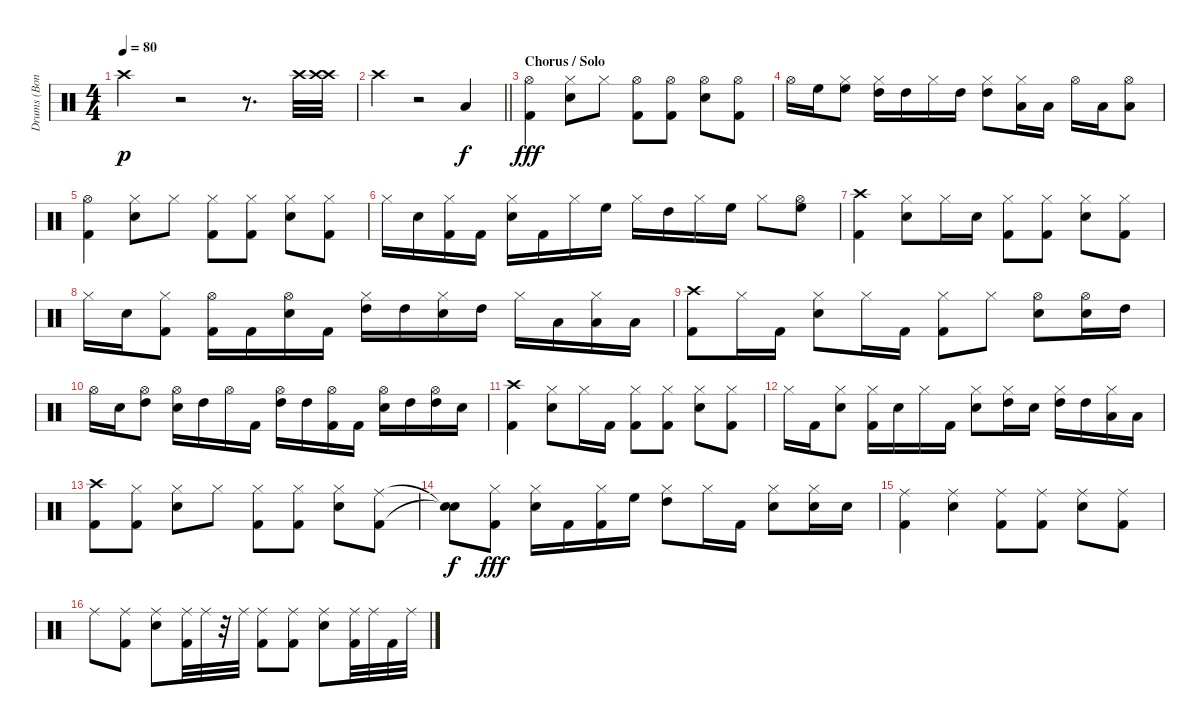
\track ("Drums (Bonham)" "Drums (Bon") {instrument percussion}
\staff {score}
\articulation defaults
\ts (4 4)
\tempo 80
\clef neutral
\ks c "Crash high (hit)".4{dy p}
r.2 r.8{d} "Crash high (hit)".32 ("Crash high (hit)" "Crash high (hit)").32 |
\barLineRight lightlight "Crash high (hit)".4
r.2 "Low Floor Tom (hit)".4{dy f} |
\section ("" "Chorus / Solo")
("Kick (hit) 2" "Hi-Hat (open)").4{dy fff} ("Snare (hit) 2" "Hi-Hat (closed)").8 "Hi-Hat (closed)".8 ("Kick (hit) 2" "Hi-Hat (open)").8 ("Kick (hit) 2" "Hi-Hat (open)").8 ("Snare (hit) 2" "Hi-Hat (open)").8 ("Kick (hit) 2" "Hi-Hat (open)").8 |
"Hi-Hat (open)".16 "High Floor Tom (hit)".16 ("Hi-Hat (closed)" "High Floor Tom (hit)").8 ("Hi-Hat (closed)" "High Tom (hit)").16 "High Tom (hit)".16 "Hi-Hat (closed)".16 "High Tom (hit)".16 ("Hi-Hat (closed)" "High Tom (hit)").8 ("Hi-Hat (closed)" "Low Tom (hit)").16 "Low Tom (hit)".16 "Hi-Hat (open)".16 "Low Tom (hit)".16 ("Hi-Hat (open)" "Low Tom (hit)").8 |
("Kick (hit) 2" "Hi-Hat (open)").4 ("Snare (hit) 2" "Hi-Hat (closed)").8 "Hi-Hat (closed)".8 ("Kick (hit) 2" "Hi-Hat (closed)").8 ("Kick (hit) 2" "Hi-Hat (closed)").8 ("Snare (hit) 2" "Hi-Hat (closed)").8 ("Kick (hit) 2" "Hi-Hat (closed)").8 |
"Hi-Hat (closed)".16 "Snare (hit) 2".16 ("Kick (hit) 2" "Hi-Hat (closed)").16 "Kick (hit) 2".16 ("Snare (hit) 2" "Hi-Hat (closed)").16 "Kick (hit) 2".16 "Hi-Hat (closed)".16 "High Floor Tom (hit)".16 "Hi-Hat (closed)".16 "High Tom (hit)".16 "Hi-Hat (closed)".16 "High Floor Tom (hit)".16 "Hi-Hat (closed)".8 ("Hi-Hat (open)" "High Floor Tom (hit)").8 |
("Kick (hit) 2" "Crash high (hit)").4 ("Snare (hit) 2" "Hi-Hat (closed)").8 "Hi-Hat (closed)".16 "Snare (hit) 2".16 ("Kick (hit) 2" "Hi-Hat (closed)").8 ("Kick (hit) 2" "Hi-Hat (closed)").8 ("Snare (hit) 2" "Hi-Hat (closed)").8 ("Kick (hit) 2" "Hi-Hat (closed)").8 |
"Hi-Hat (closed)".16 "Snare (hit) 2".16 ("Kick (hit) 2" "Hi-Hat (closed)").8 ("Kick (hit) 2" "Hi-Hat (open)").16 "Kick (hit) 2".16 ("Snare (hit) 2" "Hi-Hat (open)").16 "Kick (hit) 2".16 ("Hi-Hat (closed)" "High Tom (hit)").16 "High Tom (hit)".16 ("Snare (hit) 2" "Hi-Hat (closed)").16 "High Tom (hit)".16 "Hi-Hat (closed)".16 "Low Tom (hit)".16 ("Hi-Hat (closed)" "Low Tom (hit)").16 "Low Tom (hit)".16 |
("Kick (hit) 2" "Crash high (hit)").8 "Hi-Hat (closed)".16 "Kick (hit) 2".16 ("Snare (hit) 2" "Hi-Hat (closed)").8 "Hi-Hat (closed)".16 "Kick (hit) 2".16 ("Kick (hit) 2" "Hi-Hat (closed)").8 "Hi-Hat (closed)".8 ("Snare (hit) 2" "Hi-Hat (open)").8 ("Snare (hit) 2" "Hi-Hat (open)").16 "High Tom (hit)".16 |
"Hi-Hat (open)".16 "Snare (hit) 2".16 ("Hi-Hat (open)" "High Tom (hit)").8 ("Snare (hit) 2" "Hi-Hat (open)").16 "High Tom (hit)".16 "Hi-Hat (open)".16 "Kick (hit) 2".16 ("Hi-Hat (open)" "High Tom (hit)").16 "High Tom (hit)".16 ("Kick (hit) 2" "Hi-Hat (open)").16 "Kick (hit) 2".16 ("Snare (hit) 2" "Hi-Hat (open)").16 "High Tom (hit)".16 ("Hi-Hat (open)" "High Tom (hit)").16 "Snare (hit) 2".16 |
("Kick (hit) 2" "Crash high (hit)").4 ("Snare (hit) 2" "Hi-Hat (closed)").8 "Hi-Hat (closed)".16 "Kick (hit) 2".16 ("Kick (hit) 2" "Hi-Hat (closed)").8 ("Kick (hit) 2" "Hi-Hat (closed)").8 ("Snare (hit) 2" "Hi-Hat (closed)").8 ("Kick (hit) 2" "Hi-Hat (closed)").8 |
"Hi-Hat (closed)".16 "Kick (hit) 2".16 ("Snare (hit) 2" "Hi-Hat (closed)").8 ("Kick (hit) 2" "Hi-Hat (closed)").16 "Snare (hit) 2".16 "Hi-Hat (closed)".16 "Kick (hit) 2".16 ("Snare (hit) 2" "Hi-Hat (closed)").8 ("Hi-Hat (closed)" "High Tom (hit)").16 "Snare (hit) 2".16 ("Hi-Hat (closed)" "High Tom (hit)").16 "High Tom (hit)".16 ("Hi-Hat (closed)" "Low Tom (hit)").16 "Low Tom (hit)".16 |
("Kick (hit) 2" "Crash high (hit)").8 ("Kick (hit) 2" "Hi-Hat (closed)").8 ("Snare (hit) 2" "Hi-Hat (closed)").8 "Hi-Hat (closed)".8 ("Kick (hit) 2" "Hi-Hat (closed)").8 ("Kick (hit) 2" "Hi-Hat (closed)").8 ("Snare (hit) 2" "Hi-Hat (closed)").8 ("Kick (hit) 2" "Ride (middle)").8 |
("Snare (hit)"{t} "Snare (hit)"{t}).8{dy f} ("Kick (hit) 2" "Hi-Hat (closed)").8{dy fff} ("Snare (hit) 2" "Hi-Hat (closed)").16 "Kick (hit) 2".16 ("Kick (hit) 2" "Hi-Hat (closed)").16 "High Floor Tom (hit)".16 ("Hi-Hat (closed)" "High Tom (hit)").8 "Hi-Hat (closed)".16 "Kick (hit) 2".16 ("Snare (hit) 2" "Hi-Hat (closed)").8 ("Snare (hit) 2" "Hi-Hat (closed)").16 "Snare (hit) 2".16 |
("Kick (hit) 2" "Ride (middle)").4 ("Snare (hit) 2" "Ride (middle)").4 ("Kick (hit) 2" "Ride (middle)").8 ("Kick (hit) 2" "Ride (middle)").8 ("Snare (hit) 2" "Ride (middle)").8 ("Kick (hit) 2" "Ride (middle)").8 |
"Ride (middle)".8 ("Kick (hit) 2" "Ride (middle)").8 ("Snare (hit) 2" "Ride (middle)").8 ("Kick (hit) 2" "Ride (middle)").32 "Ride (middle)".32 r.32 "Ride (middle)".32 ("Kick (hit) 2" "Ride (middle)").8 ("Kick (hit) 2" "Ride (middle)").8 ("Snare (hit) 2" "Ride (middle)").8 ("Kick (hit) 2" "Ride (middle)").32 "Ride (middle)".32 "Kick (hit) 2".32 "Ride (middle)".32
